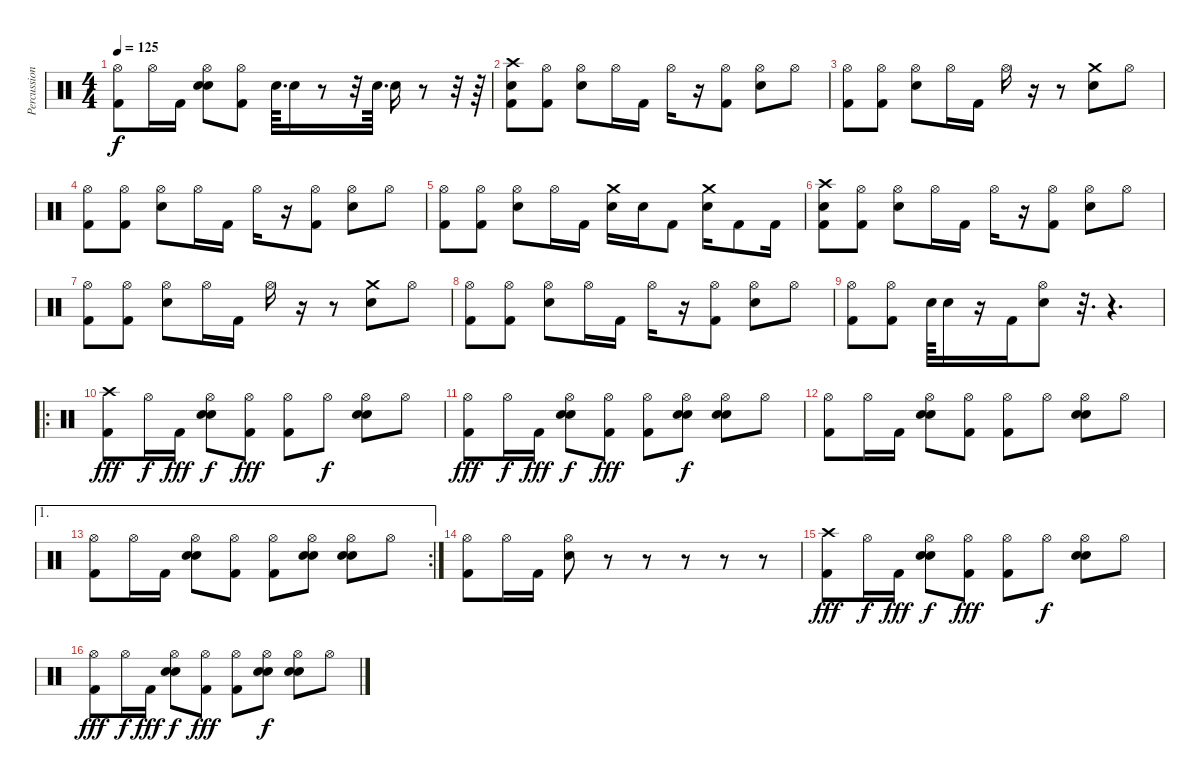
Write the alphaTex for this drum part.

\track ("Percussion" "Percussion") {instrument percussion}
\staff {score}
\articulation defaults
\ts (4 4)
\tempo 125
\clef neutral
\ks c
("Hi-Hat (open)" "Kick (hit) 2").8{dy f} "Hi-Hat (open)".16 "Kick (hit) 2".16 ("Hand Clap (hit)" "Hi-Hat (open)" "Electric Snare (hit)").8 ("Hi-Hat (open)" "Kick (hit) 2").8 "Electric Snare (hit)".64{d} "Electric Snare (hit)".16 r.8 r.32 "Electric Snare (hit)".64{d} "Electric Snare (hit)".16 r.8 r.32 r.64 |
("Crash high (hit)" "Electric Snare (hit)" "Kick (hit) 2").8 ("Hi-Hat (open)" "Kick (hit) 2").8 ("Hi-Hat (open)" "Electric Snare (hit)").8 "Hi-Hat (open)".16 "Kick (hit) 2".16 "Hi-Hat (open)".16 r.16 ("Hi-Hat (open)" "Kick (hit) 2").8 ("Hi-Hat (open)" "Electric Snare (hit)").8 "Hi-Hat (open)".8 |
("Hi-Hat (open)" "Kick (hit) 2").8 ("Hi-Hat (open)" "Kick (hit) 2").8 ("Hi-Hat (open)" "Electric Snare (hit)").8 "Hi-Hat (open)".16 "Kick (hit) 2".16 "Hi-Hat (open)".16 r.16 r.8 ("Crash medium (hit)" "Electric Snare (hit)").8 "Hi-Hat (open)".8 |
("Hi-Hat (open)" "Kick (hit) 2").8 ("Hi-Hat (open)" "Kick (hit) 2").8 ("Hi-Hat (open)" "Electric Snare (hit)").8 "Hi-Hat (open)".16 "Kick (hit) 2".16 "Hi-Hat (open)".16 r.16 ("Hi-Hat (open)" "Kick (hit) 2").8 ("Hi-Hat (open)" "Electric Snare (hit)").8 "Hi-Hat (open)".8 |
("Hi-Hat (open)" "Kick (hit) 2").8 ("Hi-Hat (open)" "Kick (hit) 2").8 ("Hi-Hat (open)" "Electric Snare (hit)").8 "Hi-Hat (open)".16 "Kick (hit) 2".16 ("Crash medium (hit)" "Electric Snare (hit)").16 "Electric Snare (hit)".16 "Kick (hit) 2".8 ("Crash medium (hit)" "Electric Snare (hit)").16 "Kick (hit) 2".8 "Kick (hit) 2".16 |
("Crash high (hit)" "Electric Snare (hit)" "Kick (hit) 2").8 ("Hi-Hat (open)" "Kick (hit) 2").8 ("Hi-Hat (open)" "Electric Snare (hit)").8 "Hi-Hat (open)".16 "Kick (hit) 2".16 "Hi-Hat (open)".16 r.16 ("Hi-Hat (open)" "Kick (hit) 2").8 ("Hi-Hat (open)" "Electric Snare (hit)").8 "Hi-Hat (open)".8 |
("Hi-Hat (open)" "Kick (hit) 2").8 ("Hi-Hat (open)" "Kick (hit) 2").8 ("Hi-Hat (open)" "Electric Snare (hit)").8 "Hi-Hat (open)".16 "Kick (hit) 2".16 "Hi-Hat (open)".16 r.16 r.8 ("Crash medium (hit)" "Electric Snare (hit)").8 "Hi-Hat (open)".8 |
("Hi-Hat (open)" "Kick (hit) 2").8 ("Hi-Hat (open)" "Kick (hit) 2").8 ("Hi-Hat (open)" "Electric Snare (hit)").8 "Hi-Hat (open)".16 "Kick (hit) 2".16 "Hi-Hat (open)".16 r.16 ("Hi-Hat (open)" "Kick (hit) 2").8 ("Hi-Hat (open)" "Electric Snare (hit)").8 "Hi-Hat (open)".8 |
("Hi-Hat (open)" "Kick (hit) 2").8 ("Hi-Hat (open)" "Kick (hit) 2").8 "Electric Snare (hit)".64 "Electric Snare (hit)".16 r.16 "Kick (hit) 2".16 ("Hi-Hat (open)" "Electric Snare (hit)").8 r.32{d} r.4{d} |
\ro
("Crash high (hit)" "Kick (hit) 2").8{dy fff} "Hi-Hat (open)".16{dy f} "Kick (hit) 2".16{dy fff} ("Hand Clap (hit)" "Hi-Hat (open)" "Electric Snare (hit)").8{dy f} ("Hi-Hat (open)" "Kick (hit) 2").8{dy fff} ("Hi-Hat (open)" "Kick (hit) 2").8 "Hi-Hat (open)".8{dy f} ("Hand Clap (hit)" "Hi-Hat (open)" "Electric Snare (hit)").8 "Hi-Hat (open)".8 |
("Hi-Hat (open)" "Kick (hit) 2").8{dy fff} "Hi-Hat (open)".16{dy f} "Kick (hit) 2".16{dy fff} ("Hand Clap (hit)" "Hi-Hat (open)" "Electric Snare (hit)").8{dy f} ("Hi-Hat (open)" "Kick (hit) 2").8{dy fff} ("Hi-Hat (open)" "Kick (hit) 2").8 ("Hand Clap (hit)" "Hi-Hat (open)" "Electric Snare (hit)").8{dy f} ("Hand Clap (hit)" "Hi-Hat (open)" "Electric Snare (hit)").8 "Hi-Hat (open)".8 |
("Hi-Hat (open)" "Kick (hit) 2").8 "Hi-Hat (open)".16 "Kick (hit) 2".16 ("Hand Clap (hit)" "Hi-Hat (open)" "Electric Snare (hit)").8 ("Hi-Hat (open)" "Kick (hit) 2").8 ("Hi-Hat (open)" "Kick (hit) 2").8 "Hi-Hat (open)".8 ("Hand Clap (hit)" "Hi-Hat (open)" "Electric Snare (hit)").8 "Hi-Hat (open)".8 |
\ae 1
\rc 2
("Hi-Hat (open)" "Kick (hit) 2").8 "Hi-Hat (open)".16 "Kick (hit) 2".16 ("Hand Clap (hit)" "Hi-Hat (open)" "Electric Snare (hit)").8 ("Hi-Hat (open)" "Kick (hit) 2").8 ("Hi-Hat (open)" "Kick (hit) 2").8 ("Hand Clap (hit)" "Hi-Hat (open)" "Electric Snare (hit)").8 ("Hand Clap (hit)" "Hi-Hat (open)" "Electric Snare (hit)").8 "Hi-Hat (open)".8 |
("Hi-Hat (open)" "Kick (hit) 2").8 "Hi-Hat (open)".16 "Kick (hit) 2".16 ("Hi-Hat (open)" "Electric Snare (hit)").8 r.8 r.8 r.8 r.8 r.8 |
("Crash high (hit)" "Kick (hit) 2").8{dy fff} "Hi-Hat (open)".16{dy f} "Kick (hit) 2".16{dy fff} ("Hand Clap (hit)" "Hi-Hat (open)" "Electric Snare (hit)").8{dy f} ("Hi-Hat (open)" "Kick (hit) 2").8{dy fff} ("Hi-Hat (open)" "Kick (hit) 2").8 "Hi-Hat (open)".8{dy f} ("Hand Clap (hit)" "Hi-Hat (open)" "Electric Snare (hit)").8 "Hi-Hat (open)".8 |
("Hi-Hat (open)" "Kick (hit) 2").8{dy fff} "Hi-Hat (open)".16{dy f} "Kick (hit) 2".16{dy fff} ("Hand Clap (hit)" "Hi-Hat (open)" "Electric Snare (hit)").8{dy f} ("Hi-Hat (open)" "Kick (hit) 2").8{dy fff} ("Hi-Hat (open)" "Kick (hit) 2").8 ("Hand Clap (hit)" "Hi-Hat (open)" "Electric Snare (hit)").8{dy f} ("Hand Clap (hit)" "Hi-Hat (open)" "Electric Snare (hit)").8 "Hi-Hat (open)".8
